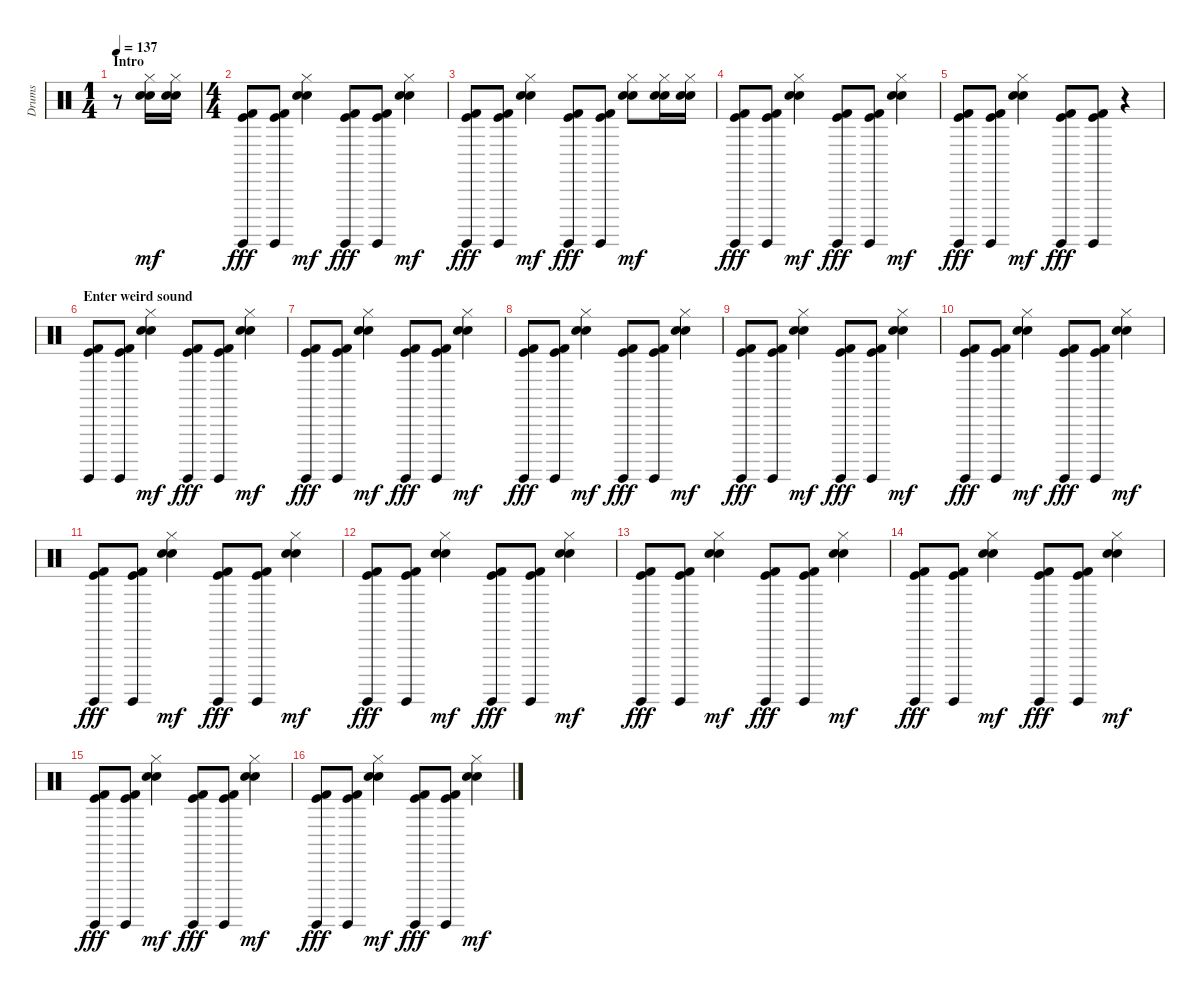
\track ("Drums" "Drums") {instrument percussion}
\staff {score}
\articulation defaults
\ts (1 4)
\section ("" "Intro")
\tempo 137
\clef neutral
\ks c
r.8{dy mf} ("Hi-Hat (closed)" "Hand Clap (hit)" "Snare (hit) 2").16 ("Hi-Hat (closed)" "Hand Clap (hit)" "Snare (hit) 2").16 |
\ts (4 4)
("Surdo (hit)" "Kick (hit) 2" "Kick (hit)").8{dy fff} ("Surdo (hit)" "Kick (hit) 2" "Kick (hit)").8 ("Hi-Hat (closed)" "Hand Clap (hit)" "Snare (hit) 2").4{dy mf} ("Surdo (hit)" "Kick (hit) 2" "Kick (hit)").8{dy fff} ("Surdo (hit)" "Kick (hit) 2" "Kick (hit)").8 ("Hi-Hat (closed)" "Hand Clap (hit)" "Snare (hit) 2").4{dy mf} |
("Surdo (hit)" "Kick (hit) 2" "Kick (hit)").8{dy fff} ("Surdo (hit)" "Kick (hit) 2" "Kick (hit)").8 ("Hi-Hat (closed)" "Hand Clap (hit)" "Snare (hit) 2").4{dy mf} ("Surdo (hit)" "Kick (hit) 2" "Kick (hit)").8{dy fff} ("Surdo (hit)" "Kick (hit) 2" "Kick (hit)").8 ("Hi-Hat (closed)" "Hand Clap (hit)" "Snare (hit) 2").8{dy mf} ("Hi-Hat (closed)" "Hand Clap (hit)" "Snare (hit) 2").16 ("Hi-Hat (closed)" "Hand Clap (hit)" "Snare (hit) 2").16 |
("Surdo (hit)" "Kick (hit) 2" "Kick (hit)").8{dy fff} ("Surdo (hit)" "Kick (hit) 2" "Kick (hit)").8 ("Hi-Hat (closed)" "Hand Clap (hit)" "Snare (hit) 2").4{dy mf} ("Surdo (hit)" "Kick (hit) 2" "Kick (hit)").8{dy fff} ("Surdo (hit)" "Kick (hit) 2" "Kick (hit)").8 ("Hi-Hat (closed)" "Hand Clap (hit)" "Snare (hit) 2").4{dy mf} |
("Surdo (hit)" "Kick (hit) 2" "Kick (hit)").8{dy fff} ("Surdo (hit)" "Kick (hit) 2" "Kick (hit)").8 ("Hi-Hat (closed)" "Hand Clap (hit)" "Snare (hit) 2").4{dy mf} ("Surdo (hit)" "Kick (hit) 2" "Kick (hit)").8{dy fff} ("Surdo (hit)" "Kick (hit) 2" "Kick (hit)").8 r.4 |
\section ("" "Enter weird sound")
("Surdo (hit)" "Kick (hit) 2" "Kick (hit)").8 ("Surdo (hit)" "Kick (hit) 2" "Kick (hit)").8 ("Hi-Hat (closed)" "Hand Clap (hit)" "Snare (hit) 2").4{dy mf} ("Surdo (hit)" "Kick (hit) 2" "Kick (hit)").8{dy fff} ("Surdo (hit)" "Kick (hit) 2" "Kick (hit)").8 ("Hi-Hat (closed)" "Hand Clap (hit)" "Snare (hit) 2").4{dy mf} |
("Surdo (hit)" "Kick (hit) 2" "Kick (hit)").8{dy fff} ("Surdo (hit)" "Kick (hit) 2" "Kick (hit)").8 ("Hi-Hat (closed)" "Hand Clap (hit)" "Snare (hit) 2").4{dy mf} ("Surdo (hit)" "Kick (hit) 2" "Kick (hit)").8{dy fff} ("Surdo (hit)" "Kick (hit) 2" "Kick (hit)").8 ("Hi-Hat (closed)" "Hand Clap (hit)" "Snare (hit) 2").4{dy mf} |
("Surdo (hit)" "Kick (hit) 2" "Kick (hit)").8{dy fff} ("Surdo (hit)" "Kick (hit) 2" "Kick (hit)").8 ("Hi-Hat (closed)" "Hand Clap (hit)" "Snare (hit) 2").4{dy mf} ("Surdo (hit)" "Kick (hit) 2" "Kick (hit)").8{dy fff} ("Surdo (hit)" "Kick (hit) 2" "Kick (hit)").8 ("Hi-Hat (closed)" "Hand Clap (hit)" "Snare (hit) 2").4{dy mf} |
("Surdo (hit)" "Kick (hit) 2" "Kick (hit)").8{dy fff} ("Surdo (hit)" "Kick (hit) 2" "Kick (hit)").8 ("Hi-Hat (closed)" "Hand Clap (hit)" "Snare (hit) 2").4{dy mf} ("Surdo (hit)" "Kick (hit) 2" "Kick (hit)").8{dy fff} ("Surdo (hit)" "Kick (hit) 2" "Kick (hit)").8 ("Hi-Hat (closed)" "Hand Clap (hit)" "Snare (hit) 2").4{dy mf} |
("Surdo (hit)" "Kick (hit) 2" "Kick (hit)").8{dy fff} ("Surdo (hit)" "Kick (hit) 2" "Kick (hit)").8 ("Hi-Hat (closed)" "Hand Clap (hit)" "Snare (hit) 2").4{dy mf} ("Surdo (hit)" "Kick (hit) 2" "Kick (hit)").8{dy fff} ("Surdo (hit)" "Kick (hit) 2" "Kick (hit)").8 ("Hi-Hat (closed)" "Hand Clap (hit)" "Snare (hit) 2").4{dy mf} |
("Surdo (hit)" "Kick (hit) 2" "Kick (hit)").8{dy fff} ("Surdo (hit)" "Kick (hit) 2" "Kick (hit)").8 ("Hi-Hat (closed)" "Hand Clap (hit)" "Snare (hit) 2").4{dy mf} ("Surdo (hit)" "Kick (hit) 2" "Kick (hit)").8{dy fff} ("Surdo (hit)" "Kick (hit) 2" "Kick (hit)").8 ("Hi-Hat (closed)" "Hand Clap (hit)" "Snare (hit) 2").4{dy mf} |
("Surdo (hit)" "Kick (hit) 2" "Kick (hit)").8{dy fff} ("Surdo (hit)" "Kick (hit) 2" "Kick (hit)").8 ("Hi-Hat (closed)" "Hand Clap (hit)" "Snare (hit) 2").4{dy mf} ("Surdo (hit)" "Kick (hit) 2" "Kick (hit)").8{dy fff} ("Surdo (hit)" "Kick (hit) 2" "Kick (hit)").8 ("Hi-Hat (closed)" "Hand Clap (hit)" "Snare (hit) 2").4{dy mf} |
("Surdo (hit)" "Kick (hit) 2" "Kick (hit)").8{dy fff} ("Surdo (hit)" "Kick (hit) 2" "Kick (hit)").8 ("Hi-Hat (closed)" "Hand Clap (hit)" "Snare (hit) 2").4{dy mf} ("Surdo (hit)" "Kick (hit) 2" "Kick (hit)").8{dy fff} ("Surdo (hit)" "Kick (hit) 2" "Kick (hit)").8 ("Hi-Hat (closed)" "Hand Clap (hit)" "Snare (hit) 2").4{dy mf} |
("Surdo (hit)" "Kick (hit) 2" "Kick (hit)").8{dy fff} ("Surdo (hit)" "Kick (hit) 2" "Kick (hit)").8 ("Hi-Hat (closed)" "Hand Clap (hit)" "Snare (hit) 2").4{dy mf} ("Surdo (hit)" "Kick (hit) 2" "Kick (hit)").8{dy fff} ("Surdo (hit)" "Kick (hit) 2" "Kick (hit)").8 ("Hi-Hat (closed)" "Hand Clap (hit)" "Snare (hit) 2").4{dy mf} |
("Surdo (hit)" "Kick (hit) 2" "Kick (hit)").8{dy fff} ("Surdo (hit)" "Kick (hit) 2" "Kick (hit)").8 ("Hi-Hat (closed)" "Hand Clap (hit)" "Snare (hit) 2").4{dy mf} ("Surdo (hit)" "Kick (hit) 2" "Kick (hit)").8{dy fff} ("Surdo (hit)" "Kick (hit) 2" "Kick (hit)").8 ("Hi-Hat (closed)" "Hand Clap (hit)" "Snare (hit) 2").4{dy mf} |
("Surdo (hit)" "Kick (hit) 2" "Kick (hit)").8{dy fff} ("Surdo (hit)" "Kick (hit) 2" "Kick (hit)").8 ("Hi-Hat (closed)" "Hand Clap (hit)" "Snare (hit) 2").4{dy mf} ("Surdo (hit)" "Kick (hit) 2" "Kick (hit)").8{dy fff} ("Surdo (hit)" "Kick (hit) 2" "Kick (hit)").8 ("Hi-Hat (closed)" "Hand Clap (hit)" "Snare (hit) 2").4{dy mf}
